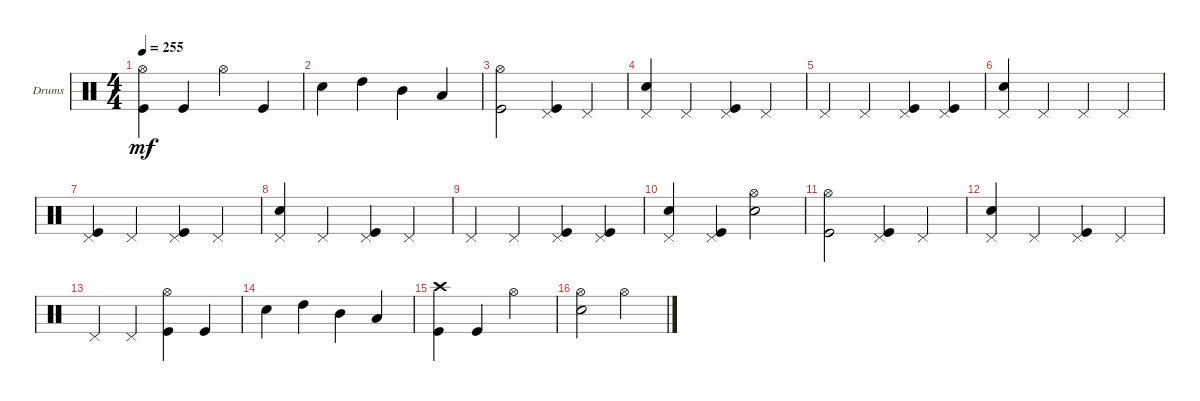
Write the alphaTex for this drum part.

\bracketExtendMode groupsimilarinstruments
\firstSystemTrackNameOrientation horizontal
\otherSystemsTrackNameOrientation horizontal
\track ("Drums" "Drums") {instrument percussion}
\staff {score}
\articulation defaults
\ts (4 4)
\tempo 255
\clef neutral
\ks c
("Kick (hit)" "Hi-Hat (open)").4{dy mf} "Kick (hit)".4 "Hi-Hat (open)".4 "Kick (hit)".4 |
"Snare (hit) 2".4 "High Tom (hit)".4 "Mid Tom (hit)".4 "Low Tom (hit)".4 |
("Kick (hit)" "Hi-Hat (open)").2 ("Kick (hit)" "Pedal Hi-Hat (hit)").4 "Pedal Hi-Hat (hit)".4 |
("Snare (hit) 2" "Pedal Hi-Hat (hit)").4 "Pedal Hi-Hat (hit)".4 ("Kick (hit)" "Pedal Hi-Hat (hit)").4 "Pedal Hi-Hat (hit)".4 |
"Pedal Hi-Hat (hit)".4 "Pedal Hi-Hat (hit)".4 ("Kick (hit)" "Pedal Hi-Hat (hit)").4 ("Kick (hit)" "Pedal Hi-Hat (hit)").4 |
("Snare (hit) 2" "Pedal Hi-Hat (hit)").4 "Pedal Hi-Hat (hit)".4 "Pedal Hi-Hat (hit)".4 "Pedal Hi-Hat (hit)".4 |
("Kick (hit)" "Pedal Hi-Hat (hit)").4 "Pedal Hi-Hat (hit)".4 ("Kick (hit)" "Pedal Hi-Hat (hit)").4 "Pedal Hi-Hat (hit)".4 |
("Snare (hit) 2" "Pedal Hi-Hat (hit)").4 "Pedal Hi-Hat (hit)".4 ("Kick (hit)" "Pedal Hi-Hat (hit)").4 "Pedal Hi-Hat (hit)".4 |
"Pedal Hi-Hat (hit)".4 "Pedal Hi-Hat (hit)".4 ("Kick (hit)" "Pedal Hi-Hat (hit)").4 ("Kick (hit)" "Pedal Hi-Hat (hit)").4 |
("Snare (hit) 2" "Pedal Hi-Hat (hit)").4 ("Kick (hit)" "Pedal Hi-Hat (hit)").4 ("Snare (hit) 2" "Hi-Hat (open)").2 |
("Kick (hit)" "Hi-Hat (open)").2 ("Kick (hit)" "Pedal Hi-Hat (hit)").4 "Pedal Hi-Hat (hit)".4 |
("Snare (hit) 2" "Pedal Hi-Hat (hit)").4 "Pedal Hi-Hat (hit)".4 ("Kick (hit)" "Pedal Hi-Hat (hit)").4 "Pedal Hi-Hat (hit)".4 |
"Pedal Hi-Hat (hit)".4 "Pedal Hi-Hat (hit)".4 ("Kick (hit)" "Hi-Hat (open)").4 "Kick (hit)".4 |
"Snare (hit) 2".4 "High Tom (hit)".4 "Mid Tom (hit)".4 "Low Tom (hit)".4 |
("Kick (hit)" "Crash high (hit)").4 "Kick (hit)".4 "Hi-Hat (open)".2 |
("Snare (hit) 2" "Hi-Hat (open)").2 "Hi-Hat (open)".2
